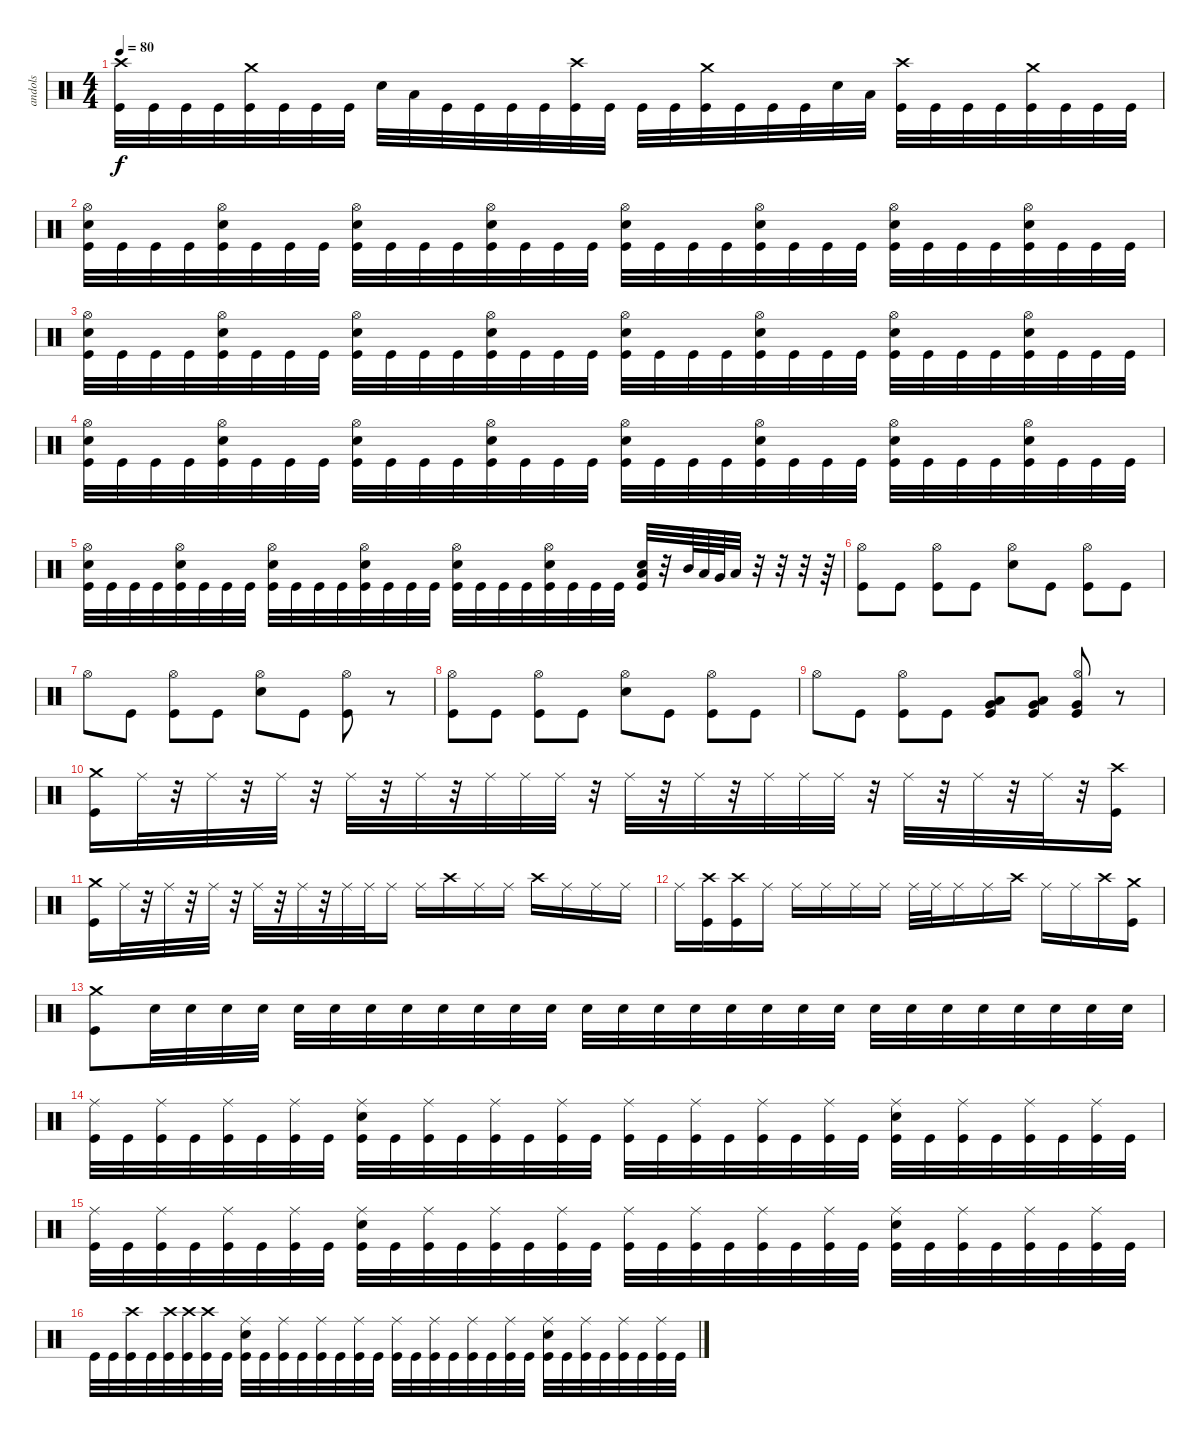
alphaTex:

\track ("andols" "andols") {instrument percussion}
\staff {score}
\articulation defaults
\ts (4 4)
\tempo 80
\clef neutral
\ks c
("Crash high (hit)" "Kick (hit)").32{dy f} "Kick (hit)".32 "Kick (hit)".32 "Kick (hit)".32 ("Crash medium (hit)" "Kick (hit)").32 "Kick (hit)".32 "Kick (hit)".32 "Kick (hit)".32 "Electric Snare (hit)".32 "Low Tom (hit)".32 "Kick (hit)".32 "Kick (hit)".32 "Kick (hit)".32 "Kick (hit)".32 ("Crash high (hit)" "Kick (hit)").32 "Kick (hit)".32 "Kick (hit)".32 "Kick (hit)".32 ("Crash medium (hit)" "Kick (hit)").32 "Kick (hit)".32 "Kick (hit)".32 "Kick (hit)".32 "Electric Snare (hit)".32 "Low Tom (hit)".32 ("Crash high (hit)" "Kick (hit)").32 "Kick (hit)".32 "Kick (hit)".32 "Kick (hit)".32 ("Crash medium (hit)" "Kick (hit)").32 "Kick (hit)".32 "Kick (hit)".32 "Kick (hit)".32 |
("Hi-Hat (open)" "Electric Snare (hit)" "Kick (hit)").32 "Kick (hit)".32 "Kick (hit)".32 "Kick (hit)".32 ("Hi-Hat (open)" "Electric Snare (hit)" "Kick (hit)").32 "Kick (hit)".32 "Kick (hit)".32 "Kick (hit)".32 ("Hi-Hat (open)" "Electric Snare (hit)" "Kick (hit)").32 "Kick (hit)".32 "Kick (hit)".32 "Kick (hit)".32 ("Hi-Hat (open)" "Electric Snare (hit)" "Kick (hit)").32 "Kick (hit)".32 "Kick (hit)".32 "Kick (hit)".32 ("Hi-Hat (open)" "Electric Snare (hit)" "Kick (hit)").32 "Kick (hit)".32 "Kick (hit)".32 "Kick (hit)".32 ("Hi-Hat (open)" "Electric Snare (hit)" "Kick (hit)").32 "Kick (hit)".32 "Kick (hit)".32 "Kick (hit)".32 ("Hi-Hat (open)" "Electric Snare (hit)" "Kick (hit)").32 "Kick (hit)".32 "Kick (hit)".32 "Kick (hit)".32 ("Hi-Hat (open)" "Electric Snare (hit)" "Kick (hit)").32 "Kick (hit)".32 "Kick (hit)".32 "Kick (hit)".32 |
("Hi-Hat (open)" "Electric Snare (hit)" "Kick (hit)").32 "Kick (hit)".32 "Kick (hit)".32 "Kick (hit)".32 ("Hi-Hat (open)" "Electric Snare (hit)" "Kick (hit)").32 "Kick (hit)".32 "Kick (hit)".32 "Kick (hit)".32 ("Hi-Hat (open)" "Electric Snare (hit)" "Kick (hit)").32 "Kick (hit)".32 "Kick (hit)".32 "Kick (hit)".32 ("Hi-Hat (open)" "Electric Snare (hit)" "Kick (hit)").32 "Kick (hit)".32 "Kick (hit)".32 "Kick (hit)".32 ("Hi-Hat (open)" "Electric Snare (hit)" "Kick (hit)").32 "Kick (hit)".32 "Kick (hit)".32 "Kick (hit)".32 ("Hi-Hat (open)" "Electric Snare (hit)" "Kick (hit)").32 "Kick (hit)".32 "Kick (hit)".32 "Kick (hit)".32 ("Hi-Hat (open)" "Electric Snare (hit)" "Kick (hit)").32 "Kick (hit)".32 "Kick (hit)".32 "Kick (hit)".32 ("Hi-Hat (open)" "Electric Snare (hit)" "Kick (hit)").32 "Kick (hit)".32 "Kick (hit)".32 "Kick (hit)".32 |
("Hi-Hat (open)" "Electric Snare (hit)" "Kick (hit)").32 "Kick (hit)".32 "Kick (hit)".32 "Kick (hit)".32 ("Hi-Hat (open)" "Electric Snare (hit)" "Kick (hit)").32 "Kick (hit)".32 "Kick (hit)".32 "Kick (hit)".32 ("Hi-Hat (open)" "Electric Snare (hit)" "Kick (hit)").32 "Kick (hit)".32 "Kick (hit)".32 "Kick (hit)".32 ("Hi-Hat (open)" "Electric Snare (hit)" "Kick (hit)").32 "Kick (hit)".32 "Kick (hit)".32 "Kick (hit)".32 ("Hi-Hat (open)" "Electric Snare (hit)" "Kick (hit)").32 "Kick (hit)".32 "Kick (hit)".32 "Kick (hit)".32 ("Hi-Hat (open)" "Electric Snare (hit)" "Kick (hit)").32 "Kick (hit)".32 "Kick (hit)".32 "Kick (hit)".32 ("Hi-Hat (open)" "Electric Snare (hit)" "Kick (hit)").32 "Kick (hit)".32 "Kick (hit)".32 "Kick (hit)".32 ("Hi-Hat (open)" "Electric Snare (hit)" "Kick (hit)").32 "Kick (hit)".32 "Kick (hit)".32 "Kick (hit)".32 |
("Hi-Hat (open)" "Electric Snare (hit)" "Kick (hit)").32 "Kick (hit)".32 "Kick (hit)".32 "Kick (hit)".32 ("Hi-Hat (open)" "Electric Snare (hit)" "Kick (hit)").32 "Kick (hit)".32 "Kick (hit)".32 "Kick (hit)".32 ("Hi-Hat (open)" "Electric Snare (hit)" "Kick (hit)").32 "Kick (hit)".32 "Kick (hit)".32 "Kick (hit)".32 ("Hi-Hat (open)" "Electric Snare (hit)" "Kick (hit)").32 "Kick (hit)".32 "Kick (hit)".32 "Kick (hit)".32 ("Hi-Hat (open)" "Electric Snare (hit)" "Kick (hit)").32 "Kick (hit)".32 "Kick (hit)".32 "Kick (hit)".32 ("Hi-Hat (open)" "Electric Snare (hit)" "Kick (hit)").32 "Kick (hit)".32 "Kick (hit)".32 "Kick (hit)".32 ("Low Tom (hit)" "Electric Snare (hit)" "Kick (hit)").32 r.32 "Mid Tom (hit)".64 "Low Tom (hit)".64 "Very Low Tom (hit)".64 "Low Floor Tom (hit)".32 r.32 r.32 r.32 r.64 |
("Hi-Hat (open)" "Kick (hit)").8 "Kick (hit)".8 ("Hi-Hat (open)" "Kick (hit)").8 "Kick (hit)".8 ("Hi-Hat (open)" "Electric Snare (hit)").8 "Kick (hit)".8 ("Hi-Hat (open)" "Kick (hit)").8 "Kick (hit)".8 |
"Hi-Hat (open)".8 "Kick (hit)".8 ("Hi-Hat (open)" "Kick (hit)").8 "Kick (hit)".8 ("Hi-Hat (open)" "Electric Snare (hit)").8 "Kick (hit)".8 ("Hi-Hat (open)" "Kick (hit)").8 r.8 |
("Hi-Hat (open)" "Kick (hit)").8 "Kick (hit)".8 ("Hi-Hat (open)" "Kick (hit)").8 "Kick (hit)".8 ("Hi-Hat (open)" "Electric Snare (hit)").8 "Kick (hit)".8 ("Hi-Hat (open)" "Kick (hit)").8 "Kick (hit)".8 |
"Hi-Hat (open)".8 "Kick (hit)".8 ("Hi-Hat (open)" "Kick (hit)").8 "Kick (hit)".8 ("Very Low Tom (hit)" "Low Floor Tom (hit)" "Kick (hit)").8 ("Very Low Tom (hit)" "Low Floor Tom (hit)" "Kick (hit)").8 ("Hi-Hat (open)" "Very Low Tom (hit)" "Kick (hit)").8 r.8 |
("Crash medium (hit)" "Kick (hit)").16 "Ride (middle)".32 r.32 "Ride (middle)".32 r.32 "Ride (middle)".32 r.32 "Ride (middle)".32 r.32 "Ride (middle)".32 r.32 "Ride (middle)".32 "Ride (middle)".32 "Ride (middle)".32 r.32 "Ride (middle)".32 r.32 "Ride (middle)".32 r.32 "Ride (middle)".32 "Ride (middle)".32 "Ride (middle)".32 r.32 "Ride (middle)".32 r.32 "Ride (middle)".32 r.32 "Ride (middle)".32 r.32 ("Crash high (hit)" "Kick (hit)").16 |
("Crash medium (hit)" "Kick (hit)").16 "Ride (middle)".32 r.32 "Ride (middle)".32 r.32 "Ride (middle)".32 r.32 "Ride (middle)".32 r.32 "Ride (middle)".32 r.32 "Ride (middle)".32 "Ride (middle)".32 "Ride (middle)".16 "Ride (middle)".16 "Crash high (hit)".16 "Ride (middle)".16 "Ride (middle)".16 "Crash high (hit)".16 "Ride (middle)".16 "Ride (middle)".16 "Ride (middle)".16 |
"Ride (middle)".16 ("Crash high (hit)" "Kick (hit)").16 ("Crash high (hit)" "Kick (hit)").16 "Ride (middle)".16 "Ride (middle)".16 "Ride (middle)".16 "Ride (middle)".16 "Ride (middle)".16 "Ride (middle)".32 "Ride (middle)".32 "Ride (middle)".16 "Ride (middle)".16 "Crash high (hit)".16 "Ride (middle)".16 "Ride (middle)".16 "Crash high (hit)".16 ("Crash medium (hit)" "Kick (hit)").16 |
("Crash medium (hit)" "Kick (hit)").8 "Electric Snare (hit)".32 "Electric Snare (hit)".32 "Electric Snare (hit)".32 "Electric Snare (hit)".32 "Electric Snare (hit)".32 "Electric Snare (hit)".32 "Electric Snare (hit)".32 "Electric Snare (hit)".32 "Electric Snare (hit)".32 "Electric Snare (hit)".32 "Electric Snare (hit)".32 "Electric Snare (hit)".32 "Electric Snare (hit)".32 "Electric Snare (hit)".32 "Electric Snare (hit)".32 "Electric Snare (hit)".32 "Electric Snare (hit)".32 "Electric Snare (hit)".32 "Electric Snare (hit)".32 "Electric Snare (hit)".32 "Electric Snare (hit)".32 "Electric Snare (hit)".32 "Electric Snare (hit)".32 "Electric Snare (hit)".32 "Electric Snare (hit)".32 "Electric Snare (hit)".32 "Electric Snare (hit)".32 "Electric Snare (hit)".32 |
("Ride (middle)" "Kick (hit)").32 "Kick (hit)".32 ("Ride (middle)" "Kick (hit)").32 "Kick (hit)".32 ("Ride (middle)" "Kick (hit)").32 "Kick (hit)".32 ("Ride (middle)" "Kick (hit)").32 "Kick (hit)".32 ("Ride (middle)" "Electric Snare (hit)" "Kick (hit)").32 "Kick (hit)".32 ("Ride (middle)" "Kick (hit)").32 "Kick (hit)".32 ("Ride (middle)" "Kick (hit)").32 "Kick (hit)".32 ("Ride (middle)" "Kick (hit)").32 "Kick (hit)".32 ("Ride (middle)" "Kick (hit)").32 "Kick (hit)".32 ("Ride (middle)" "Kick (hit)").32 "Kick (hit)".32 ("Ride (middle)" "Kick (hit)").32 "Kick (hit)".32 ("Ride (middle)" "Kick (hit)").32 "Kick (hit)".32 ("Ride (middle)" "Electric Snare (hit)" "Kick (hit)").32 "Kick (hit)".32 ("Ride (middle)" "Kick (hit)").32 "Kick (hit)".32 ("Ride (middle)" "Kick (hit)").32 "Kick (hit)".32 ("Ride (middle)" "Kick (hit)").32 "Kick (hit)".32 |
("Ride (middle)" "Kick (hit)").32 "Kick (hit)".32 ("Ride (middle)" "Kick (hit)").32 "Kick (hit)".32 ("Ride (middle)" "Kick (hit)").32 "Kick (hit)".32 ("Ride (middle)" "Kick (hit)").32 "Kick (hit)".32 ("Ride (middle)" "Electric Snare (hit)" "Kick (hit)").32 "Kick (hit)".32 ("Ride (middle)" "Kick (hit)").32 "Kick (hit)".32 ("Ride (middle)" "Kick (hit)").32 "Kick (hit)".32 ("Ride (middle)" "Kick (hit)").32 "Kick (hit)".32 ("Ride (middle)" "Kick (hit)").32 "Kick (hit)".32 ("Ride (middle)" "Kick (hit)").32 "Kick (hit)".32 ("Ride (middle)" "Kick (hit)").32 "Kick (hit)".32 ("Ride (middle)" "Kick (hit)").32 "Kick (hit)".32 ("Ride (middle)" "Electric Snare (hit)" "Kick (hit)").32 "Kick (hit)".32 ("Ride (middle)" "Kick (hit)").32 "Kick (hit)".32 ("Ride (middle)" "Kick (hit)").32 "Kick (hit)".32 ("Ride (middle)" "Kick (hit)").32 "Kick (hit)".32 |
"Kick (hit)".32 "Kick (hit)".32 ("Crash high (hit)" "Kick (hit)").32 "Kick (hit)".32 ("Crash high (hit)" "Kick (hit)").32 ("Crash high (hit)" "Kick (hit)").32 ("Crash high (hit)" "Kick (hit)").32 "Kick (hit)".32 ("Ride (middle)" "Electric Snare (hit)" "Kick (hit)").32 "Kick (hit)".32 ("Ride (middle)" "Kick (hit)").32 "Kick (hit)".32 ("Ride (middle)" "Kick (hit)").32 "Kick (hit)".32 ("Ride (middle)" "Kick (hit)").32 "Kick (hit)".32 ("Ride (middle)" "Kick (hit)").32 "Kick (hit)".32 ("Ride (middle)" "Kick (hit)").32 "Kick (hit)".32 ("Ride (middle)" "Kick (hit)").32 "Kick (hit)".32 ("Ride (middle)" "Kick (hit)").32 "Kick (hit)".32 ("Ride (middle)" "Electric Snare (hit)" "Kick (hit)").32 "Kick (hit)".32 ("Ride (middle)" "Kick (hit)").32 "Kick (hit)".32 ("Ride (middle)" "Kick (hit)").32 "Kick (hit)".32 ("Ride (middle)" "Kick (hit)").32 "Kick (hit)".32
